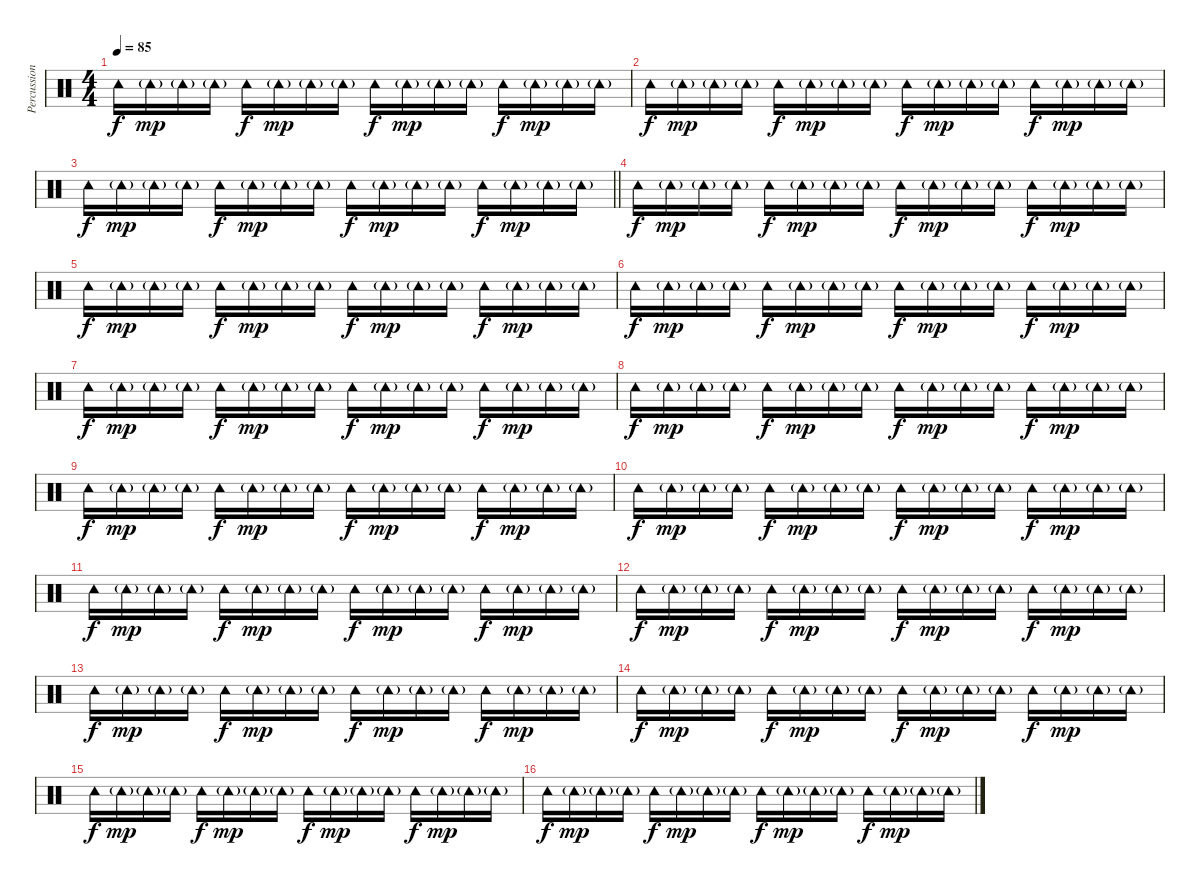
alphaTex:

\track ("Percussions" "Percussion") {instrument percussion}
\staff {score}
\articulation defaults
\ts (4 4)
\tempo 85
\clef neutral
\ks c "Tambourine (hit)".16{dy f} "Tambourine (hit)"{g}.16{dy mp} "Tambourine (hit)"{g}.16 "Tambourine (hit)"{g}.16 "Tambourine (hit)".16{dy f} "Tambourine (hit)"{g}.16{dy mp} "Tambourine (hit)"{g}.16 "Tambourine (hit)"{g}.16 "Tambourine (hit)".16{dy f} "Tambourine (hit)"{g}.16{dy mp} "Tambourine (hit)"{g}.16 "Tambourine (hit)"{g}.16 "Tambourine (hit)".16{dy f} "Tambourine (hit)"{g}.16{dy mp} "Tambourine (hit)"{g}.16 "Tambourine (hit)"{g}.16
|
"Tambourine (hit)".16{dy f} "Tambourine (hit)"{g}.16{dy mp} "Tambourine (hit)"{g}.16 "Tambourine (hit)"{g}.16 "Tambourine (hit)".16{dy f} "Tambourine (hit)"{g}.16{dy mp} "Tambourine (hit)"{g}.16 "Tambourine (hit)"{g}.16 "Tambourine (hit)".16{dy f} "Tambourine (hit)"{g}.16{dy mp} "Tambourine (hit)"{g}.16 "Tambourine (hit)"{g}.16 "Tambourine (hit)".16{dy f} "Tambourine (hit)"{g}.16{dy mp} "Tambourine (hit)"{g}.16 "Tambourine (hit)"{g}.16 |
\barLineRight lightlight "Tambourine (hit)".16{dy f} "Tambourine (hit)"{g}.16{dy mp} "Tambourine (hit)"{g}.16 "Tambourine (hit)"{g}.16 "Tambourine (hit)".16{dy f} "Tambourine (hit)"{g}.16{dy mp} "Tambourine (hit)"{g}.16 "Tambourine (hit)"{g}.16 "Tambourine (hit)".16{dy f} "Tambourine (hit)"{g}.16{dy mp} "Tambourine (hit)"{g}.16 "Tambourine (hit)"{g}.16 "Tambourine (hit)".16{dy f} "Tambourine (hit)"{g}.16{dy mp} "Tambourine (hit)"{g}.16 "Tambourine (hit)"{g}.16
|
"Tambourine (hit)".16{dy f} "Tambourine (hit)"{g}.16{dy mp} "Tambourine (hit)"{g}.16 "Tambourine (hit)"{g}.16 "Tambourine (hit)".16{dy f} "Tambourine (hit)"{g}.16{dy mp} "Tambourine (hit)"{g}.16 "Tambourine (hit)"{g}.16 "Tambourine (hit)".16{dy f} "Tambourine (hit)"{g}.16{dy mp} "Tambourine (hit)"{g}.16 "Tambourine (hit)"{g}.16 "Tambourine (hit)".16{dy f} "Tambourine (hit)"{g}.16{dy mp} "Tambourine (hit)"{g}.16 "Tambourine (hit)"{g}.16 |
"Tambourine (hit)".16{dy f} "Tambourine (hit)"{g}.16{dy mp} "Tambourine (hit)"{g}.16 "Tambourine (hit)"{g}.16 "Tambourine (hit)".16{dy f} "Tambourine (hit)"{g}.16{dy mp} "Tambourine (hit)"{g}.16 "Tambourine (hit)"{g}.16 "Tambourine (hit)".16{dy f} "Tambourine (hit)"{g}.16{dy mp} "Tambourine (hit)"{g}.16 "Tambourine (hit)"{g}.16 "Tambourine (hit)".16{dy f} "Tambourine (hit)"{g}.16{dy mp} "Tambourine (hit)"{g}.16 "Tambourine (hit)"{g}.16 |
"Tambourine (hit)".16{dy f} "Tambourine (hit)"{g}.16{dy mp} "Tambourine (hit)"{g}.16 "Tambourine (hit)"{g}.16 "Tambourine (hit)".16{dy f} "Tambourine (hit)"{g}.16{dy mp} "Tambourine (hit)"{g}.16 "Tambourine (hit)"{g}.16 "Tambourine (hit)".16{dy f} "Tambourine (hit)"{g}.16{dy mp} "Tambourine (hit)"{g}.16 "Tambourine (hit)"{g}.16 "Tambourine (hit)".16{dy f} "Tambourine (hit)"{g}.16{dy mp} "Tambourine (hit)"{g}.16 "Tambourine (hit)"{g}.16 |
"Tambourine (hit)".16{dy f} "Tambourine (hit)"{g}.16{dy mp} "Tambourine (hit)"{g}.16 "Tambourine (hit)"{g}.16 "Tambourine (hit)".16{dy f} "Tambourine (hit)"{g}.16{dy mp} "Tambourine (hit)"{g}.16 "Tambourine (hit)"{g}.16 "Tambourine (hit)".16{dy f} "Tambourine (hit)"{g}.16{dy mp} "Tambourine (hit)"{g}.16 "Tambourine (hit)"{g}.16 "Tambourine (hit)".16{dy f} "Tambourine (hit)"{g}.16{dy mp} "Tambourine (hit)"{g}.16 "Tambourine (hit)"{g}.16 |
"Tambourine (hit)".16{dy f} "Tambourine (hit)"{g}.16{dy mp} "Tambourine (hit)"{g}.16 "Tambourine (hit)"{g}.16 "Tambourine (hit)".16{dy f} "Tambourine (hit)"{g}.16{dy mp} "Tambourine (hit)"{g}.16 "Tambourine (hit)"{g}.16 "Tambourine (hit)".16{dy f} "Tambourine (hit)"{g}.16{dy mp} "Tambourine (hit)"{g}.16 "Tambourine (hit)"{g}.16 "Tambourine (hit)".16{dy f} "Tambourine (hit)"{g}.16{dy mp} "Tambourine (hit)"{g}.16 "Tambourine (hit)"{g}.16 |
"Tambourine (hit)".16{dy f} "Tambourine (hit)"{g}.16{dy mp} "Tambourine (hit)"{g}.16 "Tambourine (hit)"{g}.16 "Tambourine (hit)".16{dy f} "Tambourine (hit)"{g}.16{dy mp} "Tambourine (hit)"{g}.16 "Tambourine (hit)"{g}.16 "Tambourine (hit)".16{dy f} "Tambourine (hit)"{g}.16{dy mp} "Tambourine (hit)"{g}.16 "Tambourine (hit)"{g}.16 "Tambourine (hit)".16{dy f} "Tambourine (hit)"{g}.16{dy mp} "Tambourine (hit)"{g}.16 "Tambourine (hit)"{g}.16 |
"Tambourine (hit)".16{dy f} "Tambourine (hit)"{g}.16{dy mp} "Tambourine (hit)"{g}.16 "Tambourine (hit)"{g}.16 "Tambourine (hit)".16{dy f} "Tambourine (hit)"{g}.16{dy mp} "Tambourine (hit)"{g}.16 "Tambourine (hit)"{g}.16 "Tambourine (hit)".16{dy f} "Tambourine (hit)"{g}.16{dy mp} "Tambourine (hit)"{g}.16 "Tambourine (hit)"{g}.16 "Tambourine (hit)".16{dy f} "Tambourine (hit)"{g}.16{dy mp} "Tambourine (hit)"{g}.16 "Tambourine (hit)"{g}.16 |
"Tambourine (hit)".16{dy f} "Tambourine (hit)"{g}.16{dy mp} "Tambourine (hit)"{g}.16 "Tambourine (hit)"{g}.16 "Tambourine (hit)".16{dy f} "Tambourine (hit)"{g}.16{dy mp} "Tambourine (hit)"{g}.16 "Tambourine (hit)"{g}.16 "Tambourine (hit)".16{dy f} "Tambourine (hit)"{g}.16{dy mp} "Tambourine (hit)"{g}.16 "Tambourine (hit)"{g}.16 "Tambourine (hit)".16{dy f} "Tambourine (hit)"{g}.16{dy mp} "Tambourine (hit)"{g}.16 "Tambourine (hit)"{g}.16 |
"Tambourine (hit)".16{dy f} "Tambourine (hit)"{g}.16{dy mp} "Tambourine (hit)"{g}.16 "Tambourine (hit)"{g}.16 "Tambourine (hit)".16{dy f} "Tambourine (hit)"{g}.16{dy mp} "Tambourine (hit)"{g}.16 "Tambourine (hit)"{g}.16 "Tambourine (hit)".16{dy f} "Tambourine (hit)"{g}.16{dy mp} "Tambourine (hit)"{g}.16 "Tambourine (hit)"{g}.16 "Tambourine (hit)".16{dy f} "Tambourine (hit)"{g}.16{dy mp} "Tambourine (hit)"{g}.16 "Tambourine (hit)"{g}.16 |
"Tambourine (hit)".16{dy f} "Tambourine (hit)"{g}.16{dy mp} "Tambourine (hit)"{g}.16 "Tambourine (hit)"{g}.16 "Tambourine (hit)".16{dy f} "Tambourine (hit)"{g}.16{dy mp} "Tambourine (hit)"{g}.16 "Tambourine (hit)"{g}.16 "Tambourine (hit)".16{dy f} "Tambourine (hit)"{g}.16{dy mp} "Tambourine (hit)"{g}.16 "Tambourine (hit)"{g}.16 "Tambourine (hit)".16{dy f} "Tambourine (hit)"{g}.16{dy mp} "Tambourine (hit)"{g}.16 "Tambourine (hit)"{g}.16 |
"Tambourine (hit)".16{dy f} "Tambourine (hit)"{g}.16{dy mp} "Tambourine (hit)"{g}.16 "Tambourine (hit)"{g}.16 "Tambourine (hit)".16{dy f} "Tambourine (hit)"{g}.16{dy mp} "Tambourine (hit)"{g}.16 "Tambourine (hit)"{g}.16 "Tambourine (hit)".16{dy f} "Tambourine (hit)"{g}.16{dy mp} "Tambourine (hit)"{g}.16 "Tambourine (hit)"{g}.16 "Tambourine (hit)".16{dy f} "Tambourine (hit)"{g}.16{dy mp} "Tambourine (hit)"{g}.16 "Tambourine (hit)"{g}.16 |
"Tambourine (hit)".16{dy f} "Tambourine (hit)"{g}.16{dy mp} "Tambourine (hit)"{g}.16 "Tambourine (hit)"{g}.16 "Tambourine (hit)".16{dy f} "Tambourine (hit)"{g}.16{dy mp} "Tambourine (hit)"{g}.16 "Tambourine (hit)"{g}.16 "Tambourine (hit)".16{dy f} "Tambourine (hit)"{g}.16{dy mp} "Tambourine (hit)"{g}.16 "Tambourine (hit)"{g}.16 "Tambourine (hit)".16{dy f} "Tambourine (hit)"{g}.16{dy mp} "Tambourine (hit)"{g}.16 "Tambourine (hit)"{g}.16 |
"Tambourine (hit)".16{dy f} "Tambourine (hit)"{g}.16{dy mp} "Tambourine (hit)"{g}.16 "Tambourine (hit)"{g}.16 "Tambourine (hit)".16{dy f} "Tambourine (hit)"{g}.16{dy mp} "Tambourine (hit)"{g}.16 "Tambourine (hit)"{g}.16 "Tambourine (hit)".16{dy f} "Tambourine (hit)"{g}.16{dy mp} "Tambourine (hit)"{g}.16 "Tambourine (hit)"{g}.16 "Tambourine (hit)".16{dy f} "Tambourine (hit)"{g}.16{dy mp} "Tambourine (hit)"{g}.16 "Tambourine (hit)"{g}.16
